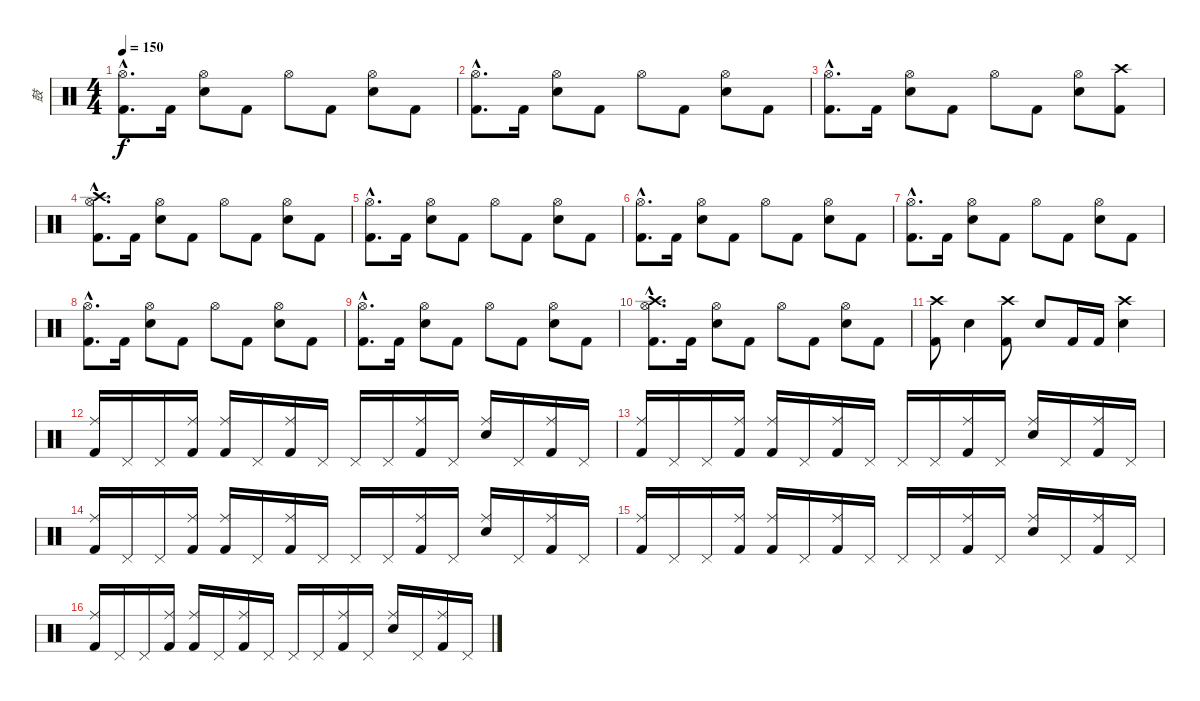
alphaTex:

\track ("鼓" "鼓") {instrument percussion}
\staff {score}
\articulation defaults
\ts (4 4)
\tempo 150
\clef neutral
\ks c
("Hi-Hat (open)"{hac} "Kick (hit) 2"{hac}).8{d dy f} "Kick (hit) 2".16 ("Hi-Hat (open)" "Electric Snare (hit)").8 "Kick (hit) 2".8 "Hi-Hat (open)".8 "Kick (hit) 2".8 ("Hi-Hat (open)" "Electric Snare (hit)").8 "Kick (hit) 2".8 |
("Hi-Hat (open)"{hac} "Kick (hit) 2"{hac}).8{d} "Kick (hit) 2".16 ("Hi-Hat (open)" "Electric Snare (hit)").8 "Kick (hit) 2".8 "Hi-Hat (open)".8 "Kick (hit) 2".8 ("Hi-Hat (open)" "Electric Snare (hit)").8 "Kick (hit) 2".8 |
("Hi-Hat (open)"{hac} "Kick (hit) 2"{hac}).8{d} "Kick (hit) 2".16 ("Hi-Hat (open)" "Electric Snare (hit)").8 "Kick (hit) 2".8 "Hi-Hat (open)".8 "Kick (hit) 2".8 ("Hi-Hat (open)" "Electric Snare (hit)").8 ("Crash high (hit)" "Kick (hit) 2").8 |
("Crash high (hit)"{hac} "Hi-Hat (open)"{hac} "Kick (hit) 2"{hac}).8{d} "Kick (hit) 2".16 ("Hi-Hat (open)" "Electric Snare (hit)").8 "Kick (hit) 2".8 "Hi-Hat (open)".8 "Kick (hit) 2".8 ("Hi-Hat (open)" "Electric Snare (hit)").8 "Kick (hit) 2".8 |
("Hi-Hat (open)"{hac} "Kick (hit) 2"{hac}).8{d} "Kick (hit) 2".16 ("Hi-Hat (open)" "Electric Snare (hit)").8 "Kick (hit) 2".8 "Hi-Hat (open)".8 "Kick (hit) 2".8 ("Hi-Hat (open)" "Electric Snare (hit)").8 "Kick (hit) 2".8 |
("Hi-Hat (open)"{hac} "Kick (hit) 2"{hac}).8{d} "Kick (hit) 2".16 ("Hi-Hat (open)" "Electric Snare (hit)").8 "Kick (hit) 2".8 "Hi-Hat (open)".8 "Kick (hit) 2".8 ("Hi-Hat (open)" "Electric Snare (hit)").8 "Kick (hit) 2".8 |
("Hi-Hat (open)"{hac} "Kick (hit) 2"{hac}).8{d} "Kick (hit) 2".16 ("Hi-Hat (open)" "Electric Snare (hit)").8 "Kick (hit) 2".8 "Hi-Hat (open)".8 "Kick (hit) 2".8 ("Hi-Hat (open)" "Electric Snare (hit)").8 "Kick (hit) 2".8 |
("Hi-Hat (open)"{hac} "Kick (hit) 2"{hac}).8{d} "Kick (hit) 2".16 ("Hi-Hat (open)" "Electric Snare (hit)").8 "Kick (hit) 2".8 "Hi-Hat (open)".8 "Kick (hit) 2".8 ("Hi-Hat (open)" "Electric Snare (hit)").8 "Kick (hit) 2".8 |
("Hi-Hat (open)"{hac} "Kick (hit) 2"{hac}).8{d} "Kick (hit) 2".16 ("Hi-Hat (open)" "Electric Snare (hit)").8 "Kick (hit) 2".8 "Hi-Hat (open)".8 "Kick (hit) 2".8 ("Hi-Hat (open)" "Electric Snare (hit)").8 "Kick (hit) 2".8 |
("Crash high (hit)"{hac} "Hi-Hat (open)"{hac} "Kick (hit) 2"{hac}).8{d} "Kick (hit) 2".16 ("Hi-Hat (open)" "Electric Snare (hit)").8 "Kick (hit) 2".8 "Hi-Hat (open)".8 "Kick (hit) 2".8 ("Hi-Hat (open)" "Electric Snare (hit)").8 "Kick (hit) 2".8 |
("Crash high (hit)" "Kick (hit) 2").8 "Electric Snare (hit)".4 ("Crash high (hit)" "Kick (hit) 2").8 "Electric Snare (hit)".8 "Kick (hit) 2".16 "Kick (hit) 2".16 ("Crash high (hit)" "Electric Snare (hit)").4 |
("Ride (middle)" "Kick (hit) 2").16 "Pedal Hi-Hat (hit)".16 "Pedal Hi-Hat (hit)".16 ("Ride (middle)" "Kick (hit) 2").16 ("Ride (middle)" "Kick (hit) 2").16 "Pedal Hi-Hat (hit)".16 ("Ride (middle)" "Kick (hit) 2").16 "Pedal Hi-Hat (hit)".16 "Pedal Hi-Hat (hit)".16 "Pedal Hi-Hat (hit)".16 ("Ride (middle)" "Kick (hit) 2").16 "Pedal Hi-Hat (hit)".16 ("Ride (middle)" "Electric Snare (hit)").16 "Pedal Hi-Hat (hit)".16 ("Ride (middle)" "Kick (hit) 2").16 "Pedal Hi-Hat (hit)".16 |
("Ride (middle)" "Kick (hit) 2").16 "Pedal Hi-Hat (hit)".16 "Pedal Hi-Hat (hit)".16 ("Ride (middle)" "Kick (hit) 2").16 ("Ride (middle)" "Kick (hit) 2").16 "Pedal Hi-Hat (hit)".16 ("Ride (middle)" "Kick (hit) 2").16 "Pedal Hi-Hat (hit)".16 "Pedal Hi-Hat (hit)".16 "Pedal Hi-Hat (hit)".16 ("Ride (middle)" "Kick (hit) 2").16 "Pedal Hi-Hat (hit)".16 ("Ride (middle)" "Electric Snare (hit)").16 "Pedal Hi-Hat (hit)".16 ("Ride (middle)" "Kick (hit) 2").16 "Pedal Hi-Hat (hit)".16 |
("Ride (middle)" "Kick (hit) 2").16 "Pedal Hi-Hat (hit)".16 "Pedal Hi-Hat (hit)".16 ("Ride (middle)" "Kick (hit) 2").16 ("Ride (middle)" "Kick (hit) 2").16 "Pedal Hi-Hat (hit)".16 ("Ride (middle)" "Kick (hit) 2").16 "Pedal Hi-Hat (hit)".16 "Pedal Hi-Hat (hit)".16 "Pedal Hi-Hat (hit)".16 ("Ride (middle)" "Kick (hit) 2").16 "Pedal Hi-Hat (hit)".16 ("Ride (middle)" "Electric Snare (hit)").16 "Pedal Hi-Hat (hit)".16 ("Ride (middle)" "Kick (hit) 2").16 "Pedal Hi-Hat (hit)".16 |
("Ride (middle)" "Kick (hit) 2").16 "Pedal Hi-Hat (hit)".16 "Pedal Hi-Hat (hit)".16 ("Ride (middle)" "Kick (hit) 2").16 ("Ride (middle)" "Kick (hit) 2").16 "Pedal Hi-Hat (hit)".16 ("Ride (middle)" "Kick (hit) 2").16 "Pedal Hi-Hat (hit)".16 "Pedal Hi-Hat (hit)".16 "Pedal Hi-Hat (hit)".16 ("Ride (middle)" "Kick (hit) 2").16 "Pedal Hi-Hat (hit)".16 ("Ride (middle)" "Electric Snare (hit)").16 "Pedal Hi-Hat (hit)".16 ("Ride (middle)" "Kick (hit) 2").16 "Pedal Hi-Hat (hit)".16 |
("Ride (middle)" "Kick (hit) 2").16 "Pedal Hi-Hat (hit)".16 "Pedal Hi-Hat (hit)".16 ("Ride (middle)" "Kick (hit) 2").16 ("Ride (middle)" "Kick (hit) 2").16 "Pedal Hi-Hat (hit)".16 ("Ride (middle)" "Kick (hit) 2").16 "Pedal Hi-Hat (hit)".16 "Pedal Hi-Hat (hit)".16 "Pedal Hi-Hat (hit)".16 ("Ride (middle)" "Kick (hit) 2").16 "Pedal Hi-Hat (hit)".16 ("Ride (middle)" "Electric Snare (hit)").16 "Pedal Hi-Hat (hit)".16 ("Ride (middle)" "Kick (hit) 2").16 "Pedal Hi-Hat (hit)".16
